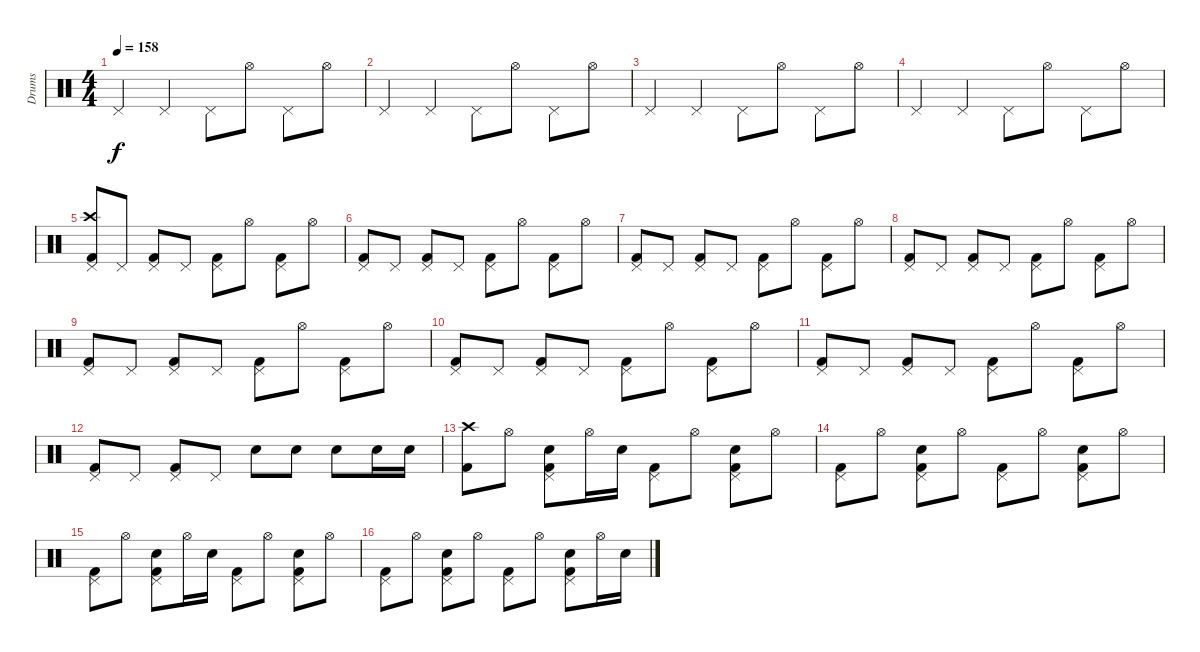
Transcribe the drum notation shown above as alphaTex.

\track ("Drums" "Drums") {instrument percussion}
\staff {score}
\articulation defaults
\ts (4 4)
\tempo 158
\clef neutral
\ks c "Pedal Hi-Hat (hit)".4{dy f} "Pedal Hi-Hat (hit)".4 "Pedal Hi-Hat (hit)".8 "Hi-Hat (open)".8 "Pedal Hi-Hat (hit)".8 "Hi-Hat (open)".8
|
"Pedal Hi-Hat (hit)".4 "Pedal Hi-Hat (hit)".4 "Pedal Hi-Hat (hit)".8 "Hi-Hat (open)".8 "Pedal Hi-Hat (hit)".8 "Hi-Hat (open)".8 |
"Pedal Hi-Hat (hit)".4 "Pedal Hi-Hat (hit)".4 "Pedal Hi-Hat (hit)".8 "Hi-Hat (open)".8 "Pedal Hi-Hat (hit)".8 "Hi-Hat (open)".8 |
"Pedal Hi-Hat (hit)".4 "Pedal Hi-Hat (hit)".4 "Pedal Hi-Hat (hit)".8 "Hi-Hat (open)".8 "Pedal Hi-Hat (hit)".8 "Hi-Hat (open)".8 |
("Crash high (hit)" "Pedal Hi-Hat (hit)" "Kick (hit) 2").8 "Pedal Hi-Hat (hit)".8 ("Pedal Hi-Hat (hit)" "Kick (hit) 2").8 "Pedal Hi-Hat (hit)".8 ("Pedal Hi-Hat (hit)" "Kick (hit) 2").8 "Hi-Hat (open)".8 ("Pedal Hi-Hat (hit)" "Kick (hit) 2").8 "Hi-Hat (open)".8 |
("Pedal Hi-Hat (hit)" "Kick (hit) 2").8 "Pedal Hi-Hat (hit)".8 ("Pedal Hi-Hat (hit)" "Kick (hit) 2").8 "Pedal Hi-Hat (hit)".8 ("Pedal Hi-Hat (hit)" "Kick (hit) 2").8 "Hi-Hat (open)".8 ("Pedal Hi-Hat (hit)" "Kick (hit) 2").8 "Hi-Hat (open)".8 |
("Pedal Hi-Hat (hit)" "Kick (hit) 2").8 "Pedal Hi-Hat (hit)".8 ("Pedal Hi-Hat (hit)" "Kick (hit) 2").8 "Pedal Hi-Hat (hit)".8 ("Pedal Hi-Hat (hit)" "Kick (hit) 2").8 "Hi-Hat (open)".8 ("Pedal Hi-Hat (hit)" "Kick (hit) 2").8 "Hi-Hat (open)".8 |
("Pedal Hi-Hat (hit)" "Kick (hit) 2").8 "Pedal Hi-Hat (hit)".8 ("Pedal Hi-Hat (hit)" "Kick (hit) 2").8 "Pedal Hi-Hat (hit)".8 ("Pedal Hi-Hat (hit)" "Kick (hit) 2").8 "Hi-Hat (open)".8 ("Pedal Hi-Hat (hit)" "Kick (hit) 2").8 "Hi-Hat (open)".8 |
("Pedal Hi-Hat (hit)" "Kick (hit) 2").8 "Pedal Hi-Hat (hit)".8 ("Pedal Hi-Hat (hit)" "Kick (hit) 2").8 "Pedal Hi-Hat (hit)".8 ("Pedal Hi-Hat (hit)" "Kick (hit) 2").8 "Hi-Hat (open)".8 ("Pedal Hi-Hat (hit)" "Kick (hit) 2").8 "Hi-Hat (open)".8 |
("Pedal Hi-Hat (hit)" "Kick (hit) 2").8 "Pedal Hi-Hat (hit)".8 ("Pedal Hi-Hat (hit)" "Kick (hit) 2").8 "Pedal Hi-Hat (hit)".8 ("Pedal Hi-Hat (hit)" "Kick (hit) 2").8 "Hi-Hat (open)".8 ("Pedal Hi-Hat (hit)" "Kick (hit) 2").8 "Hi-Hat (open)".8 |
("Pedal Hi-Hat (hit)" "Kick (hit) 2").8 "Pedal Hi-Hat (hit)".8 ("Pedal Hi-Hat (hit)" "Kick (hit) 2").8 "Pedal Hi-Hat (hit)".8 ("Pedal Hi-Hat (hit)" "Kick (hit) 2").8 "Hi-Hat (open)".8 ("Pedal Hi-Hat (hit)" "Kick (hit) 2").8 "Hi-Hat (open)".8 |
("Pedal Hi-Hat (hit)" "Kick (hit) 2").8 "Pedal Hi-Hat (hit)".8 ("Pedal Hi-Hat (hit)" "Kick (hit) 2").8 "Pedal Hi-Hat (hit)".8 "Electric Snare (hit)".8 "Electric Snare (hit)".8 "Electric Snare (hit)".8 "Electric Snare (hit)".16 "Electric Snare (hit)".16 |
("Crash high (hit)" "Kick (hit) 2").8 "Hi-Hat (open)".8 ("Pedal Hi-Hat (hit)" "Electric Snare (hit)" "Kick (hit) 2").8 "Hi-Hat (open)".16 "Electric Snare (hit)".16 ("Pedal Hi-Hat (hit)" "Kick (hit) 2").8 "Hi-Hat (open)".8 ("Pedal Hi-Hat (hit)" "Electric Snare (hit)" "Kick (hit) 2").8 "Hi-Hat (open)".8 |
("Pedal Hi-Hat (hit)" "Kick (hit) 2").8 "Hi-Hat (open)".8 ("Pedal Hi-Hat (hit)" "Electric Snare (hit)" "Kick (hit) 2").8 "Hi-Hat (open)".8 ("Pedal Hi-Hat (hit)" "Kick (hit) 2").8 "Hi-Hat (open)".8 ("Pedal Hi-Hat (hit)" "Electric Snare (hit)" "Kick (hit) 2").8 "Hi-Hat (open)".8 |
("Pedal Hi-Hat (hit)" "Kick (hit) 2").8 "Hi-Hat (open)".8 ("Pedal Hi-Hat (hit)" "Electric Snare (hit)" "Kick (hit) 2").8 "Hi-Hat (open)".16 "Electric Snare (hit)".16 ("Pedal Hi-Hat (hit)" "Kick (hit) 2").8 "Hi-Hat (open)".8 ("Pedal Hi-Hat (hit)" "Electric Snare (hit)" "Kick (hit) 2").8 "Hi-Hat (open)".8 |
("Pedal Hi-Hat (hit)" "Kick (hit) 2").8 "Hi-Hat (open)".8 ("Pedal Hi-Hat (hit)" "Electric Snare (hit)" "Kick (hit) 2").8 "Hi-Hat (open)".8 ("Pedal Hi-Hat (hit)" "Kick (hit) 2").8 "Hi-Hat (open)".8 ("Pedal Hi-Hat (hit)" "Electric Snare (hit)" "Kick (hit) 2").8 "Hi-Hat (open)".16 "Electric Snare (hit)".16
